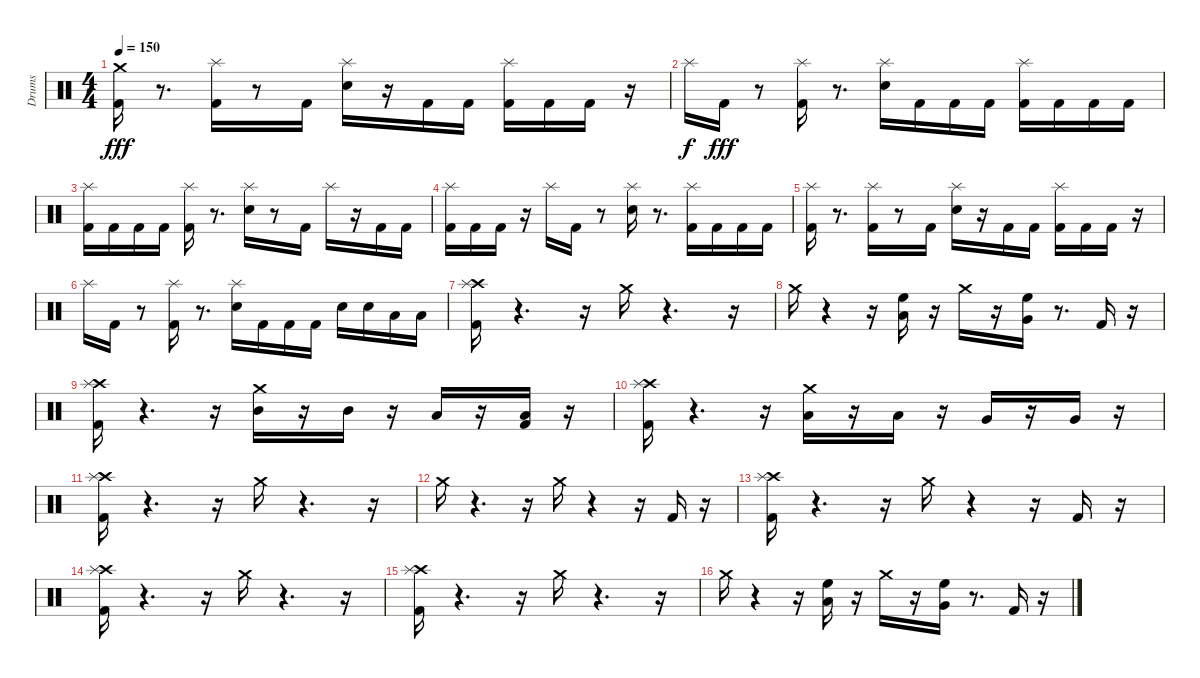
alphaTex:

\track ("Drums" "Drums") {instrument percussion}
\staff {score}
\articulation defaults
\ts (4 4)
\tempo 150
\clef neutral
\ks c
("Kick (hit) 2" "Crash medium (hit)").16{dy fff} r.8{d} ("Kick (hit) 2" "Splash (hit)").16 r.8 "Kick (hit) 2".16 ("Snare (hit) 2" "Splash (hit)").16 r.16 "Kick (hit) 2".16 "Kick (hit) 2".16 ("Kick (hit) 2" "Splash (hit)").16 "Kick (hit) 2".16 "Kick (hit) 2".16 r.16 |
"Splash (hit)".16{dy f} "Kick (hit) 2".16{dy fff} r.8 ("Kick (hit) 2" "Splash (hit)").16 r.8{d} ("Snare (hit) 2" "Splash (hit)").16 "Kick (hit) 2".16 "Kick (hit) 2".16 "Kick (hit) 2".16 ("Kick (hit) 2" "Splash (hit)").16 "Kick (hit) 2".16 "Kick (hit) 2".16 "Kick (hit) 2".16 |
("Kick (hit) 2" "Splash (hit)").16 "Kick (hit) 2".16 "Kick (hit) 2".16 "Kick (hit) 2".16 ("Kick (hit) 2" "Splash (hit)").16 r.8{d} ("Snare (hit) 2" "Splash (hit)").16 r.8 "Kick (hit) 2".16 "Splash (hit)".16 r.16 "Kick (hit) 2".16 "Kick (hit) 2".16 |
("Kick (hit) 2" "Splash (hit)").16 "Kick (hit) 2".16 "Kick (hit) 2".16 r.16 "Splash (hit)".16 "Kick (hit) 2".16 r.8 ("Snare (hit) 2" "Splash (hit)").16 r.8{d} ("Kick (hit) 2" "Splash (hit)").16 "Kick (hit) 2".16 "Kick (hit) 2".16 "Kick (hit) 2".16 |
("Kick (hit) 2" "Splash (hit)").16 r.8{d} ("Kick (hit) 2" "Splash (hit)").16 r.8 "Kick (hit) 2".16 ("Snare (hit) 2" "Splash (hit)").16 r.16 "Kick (hit) 2".16 "Kick (hit) 2".16 ("Kick (hit) 2" "Splash (hit)").16 "Kick (hit) 2".16 "Kick (hit) 2".16 r.16 |
"Splash (hit)".16 "Kick (hit) 2".16 r.8 ("Kick (hit) 2" "Splash (hit)").16 r.8{d} ("Snare (hit) 2" "Splash (hit)").16 "Kick (hit) 2".16 "Kick (hit) 2".16 "Kick (hit) 2".16 "Snare (hit) 2".16 "Snare (hit) 2".16 "Low Tom (hit)".16 "Low Tom (hit)".16 |
("Crash high (hit)" "Kick (hit) 2" "Splash (hit)").16 r.4{d} r.16 "Crash medium (hit)".16 r.4{d} r.16 |
"Crash medium (hit)".16 r.4 r.16 ("Low Tom (hit)" "High Floor Tom (hit)").16 r.16 "Crash medium (hit)".16 r.16 ("Very Low Tom (hit)" "High Floor Tom (hit)").16 r.8{d} "Kick (hit) 2".16 r.16 |
("Crash high (hit)" "Kick (hit) 2" "Splash (hit)").16 r.4{d} r.16 ("Mid Tom (hit)" "Crash medium (hit)").16 r.16 "Mid Tom (hit)".16 r.16 "Low Tom (hit)".16 r.16 ("Kick (hit) 2" "Low Tom (hit)").16 r.16 |
("Crash high (hit)" "Kick (hit) 2" "Splash (hit)").16 r.4{d} r.16 ("Low Tom (hit)" "Crash medium (hit)").16 r.16 "Low Tom (hit)".16 r.16 "Very Low Tom (hit)".16 r.16 "Very Low Tom (hit)".16 r.16 |
("Crash high (hit)" "Kick (hit) 2" "Splash (hit)").16 r.4{d} r.16 "Crash medium (hit)".16 r.4{d} r.16 |
"Crash medium (hit)".16 r.4{d} r.16 "Crash medium (hit)".16 r.4 r.16 "Kick (hit) 2".16 r.16 |
("Crash high (hit)" "Kick (hit) 2" "Splash (hit)").16 r.4{d} r.16 "Crash medium (hit)".16 r.4 r.16 "Kick (hit) 2".16 r.16 |
("Crash high (hit)" "Kick (hit) 2" "Splash (hit)").16 r.4{d} r.16 "Crash medium (hit)".16 r.4{d} r.16 |
("Crash high (hit)" "Kick (hit) 2" "Splash (hit)").16 r.4{d} r.16 "Crash medium (hit)".16 r.4{d} r.16 |
"Crash medium (hit)".16 r.4 r.16 ("Low Tom (hit)" "High Floor Tom (hit)").16 r.16 "Crash medium (hit)".16 r.16 ("Very Low Tom (hit)" "High Floor Tom (hit)").16 r.8{d} "Kick (hit) 2".16 r.16
